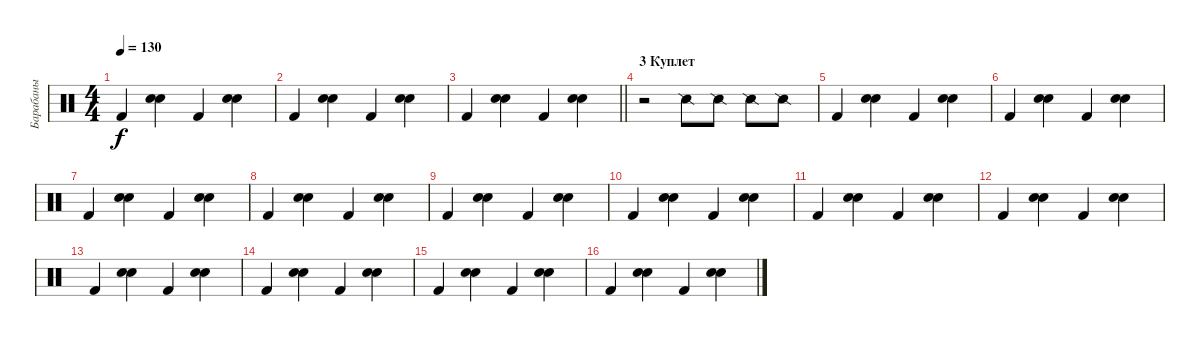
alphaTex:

\track ("Барабаны" "Барабаны") {instrument percussion}
\staff {score}
\articulation defaults
\ts (4 4)
\tempo 130
\clef neutral
\ks c "Kick (hit) 2".4{dy f}
("Snare (hit) 2" "Electric Snare (hit)").4 "Kick (hit) 2".4 ("Snare (hit) 2" "Electric Snare (hit)").4 |
"Kick (hit) 2".4 ("Snare (hit) 2" "Electric Snare (hit)").4 "Kick (hit) 2".4 ("Snare (hit) 2" "Electric Snare (hit)").4 |
\barLineRight lightlight "Kick (hit) 2".4
("Snare (hit) 2" "Electric Snare (hit)").4 "Kick (hit) 2".4 ("Snare (hit) 2" "Electric Snare (hit)").4 |
\section ("" "3 Куплет")
r.2 "Snare (side stick) 2".8 "Snare (side stick) 2".8 "Snare (side stick) 2".8 "Snare (side stick) 2".8 |
"Kick (hit) 2".4 ("Snare (hit) 2" "Electric Snare (hit)").4 "Kick (hit) 2".4 ("Snare (hit) 2" "Electric Snare (hit)").4 |
"Kick (hit) 2".4 ("Snare (hit) 2" "Electric Snare (hit)").4 "Kick (hit) 2".4 ("Snare (hit) 2" "Electric Snare (hit)").4 |
"Kick (hit) 2".4 ("Snare (hit) 2" "Electric Snare (hit)").4 "Kick (hit) 2".4 ("Snare (hit) 2" "Electric Snare (hit)").4 |
"Kick (hit) 2".4 ("Snare (hit) 2" "Electric Snare (hit)").4 "Kick (hit) 2".4 ("Snare (hit) 2" "Electric Snare (hit)").4 |
"Kick (hit) 2".4 ("Snare (hit) 2" "Electric Snare (hit)").4 "Kick (hit) 2".4 ("Snare (hit) 2" "Electric Snare (hit)").4 |
"Kick (hit) 2".4 ("Snare (hit) 2" "Electric Snare (hit)").4 "Kick (hit) 2".4 ("Snare (hit) 2" "Electric Snare (hit)").4 |
"Kick (hit) 2".4 ("Snare (hit) 2" "Electric Snare (hit)").4 "Kick (hit) 2".4 ("Snare (hit) 2" "Electric Snare (hit)").4 |
"Kick (hit) 2".4 ("Snare (hit) 2" "Electric Snare (hit)").4 "Kick (hit) 2".4 ("Snare (hit) 2" "Electric Snare (hit)").4 |
"Kick (hit) 2".4 ("Snare (hit) 2" "Electric Snare (hit)").4 "Kick (hit) 2".4 ("Snare (hit) 2" "Electric Snare (hit)").4 |
"Kick (hit) 2".4 ("Snare (hit) 2" "Electric Snare (hit)").4 "Kick (hit) 2".4 ("Snare (hit) 2" "Electric Snare (hit)").4 |
"Kick (hit) 2".4 ("Snare (hit) 2" "Electric Snare (hit)").4 "Kick (hit) 2".4 ("Snare (hit) 2" "Electric Snare (hit)").4 |
"Kick (hit) 2".4 ("Snare (hit) 2" "Electric Snare (hit)").4 "Kick (hit) 2".4 ("Snare (hit) 2" "Electric Snare (hit)").4
